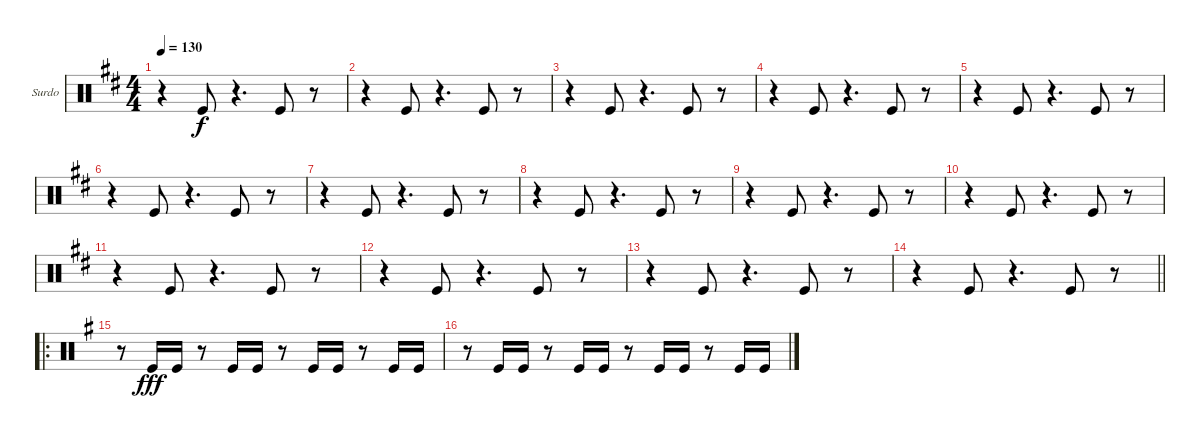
\bracketExtendMode groupsimilarinstruments
\firstSystemTrackNameOrientation horizontal
\otherSystemsTrackNameOrientation horizontal
\track ("Surdo" "Surdo") {instrument percussion}
\staff {score}
\articulation defaults
\ts (4 4)
\tempo 130
\clef neutral
\ks bminor
r.4{dy f} "Kick (hit)".8 r.4{d} "Kick (hit)".8 r.8 |
r.4 "Kick (hit)".8 r.4{d} "Kick (hit)".8 r.8 |
r.4 "Kick (hit)".8 r.4{d} "Kick (hit)".8 r.8 |
r.4 "Kick (hit)".8 r.4{d} "Kick (hit)".8 r.8 |
r.4 "Kick (hit)".8 r.4{d} "Kick (hit)".8 r.8 |
r.4 "Kick (hit)".8 r.4{d} "Kick (hit)".8 r.8 |
r.4 "Kick (hit)".8 r.4{d} "Kick (hit)".8 r.8 |
r.4 "Kick (hit)".8 r.4{d} "Kick (hit)".8 r.8 |
r.4 "Kick (hit)".8 r.4{d} "Kick (hit)".8 r.8 |
r.4 "Kick (hit)".8 r.4{d} "Kick (hit)".8 r.8 |
r.4 "Kick (hit)".8 r.4{d} "Kick (hit)".8 r.8 |
r.4 "Kick (hit)".8 r.4{d} "Kick (hit)".8 r.8 |
r.4 "Kick (hit)".8 r.4{d} "Kick (hit)".8 r.8 |
\barLineRight lightlight
r.4 "Kick (hit)".8 r.4{d} "Kick (hit)".8 r.8 |
\ro
\ks eminor
r.8 "Kick (hit)".16{dy fff} "Kick (hit)".16 r.8 "Kick (hit)".16 "Kick (hit)".16 r.8 "Kick (hit)".16 "Kick (hit)".16 r.8 "Kick (hit)".16 "Kick (hit)".16 |
r.8 "Kick (hit)".16 "Kick (hit)".16 r.8 "Kick (hit)".16 "Kick (hit)".16 r.8 "Kick (hit)".16 "Kick (hit)".16 r.8 "Kick (hit)".16 "Kick (hit)".16
